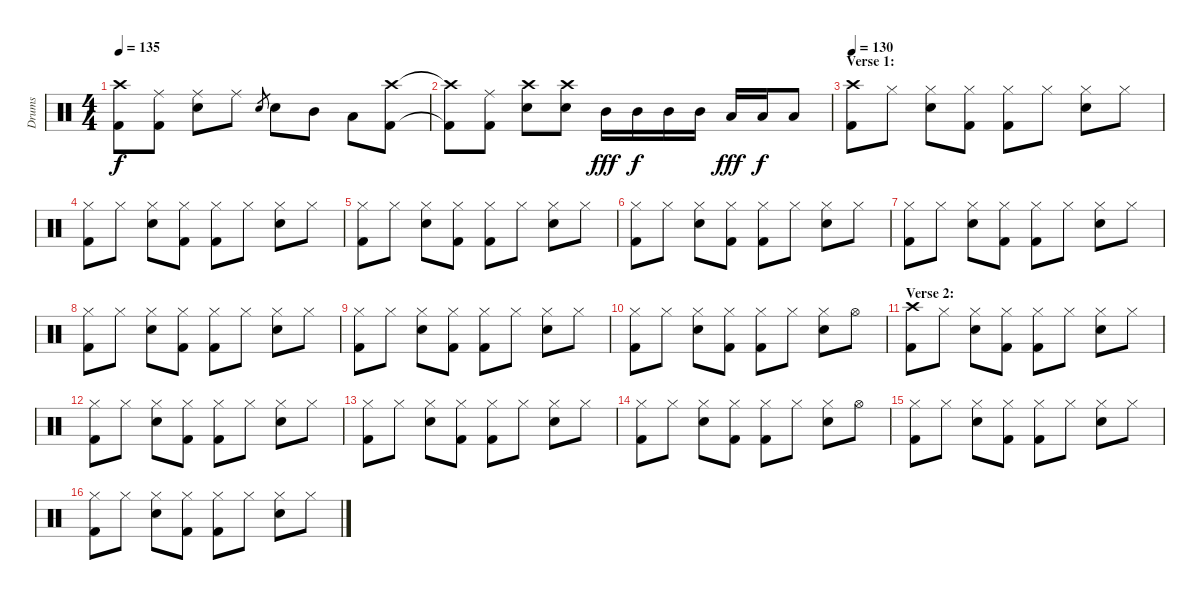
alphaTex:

\track ("Drums" "Drums") {instrument percussion}
\staff {score}
\articulation defaults
\ts (4 4)
\tempo 135
\clef neutral
\ks c
("Crash high (hit)"{t} "Kick (hit) 2"{t}).8{dy f} ("Ride (middle)" "Kick (hit) 2").8 ("Ride (middle)" "Electric Snare (hit)").8 "Ride (middle)".8 "Electric Snare (hit)".8{gr} "Electric Snare (hit)".8 "Mid Tom (hit)".8 "Low Tom (hit)".8 ("Crash high (hit)" "Kick (hit) 2").8 |
("Crash high (hit)"{t} "Kick (hit) 2"{t}).8 ("Ride (middle)" "Kick (hit) 2").8 ("Crash high (hit)" "Electric Snare (hit)").8 ("Crash high (hit)" "Electric Snare (hit)").8 "Mid Tom (hit)".16{dy fff} "Mid Tom (hit)".16{dy f} "Mid Tom (hit)".16 "Mid Tom (hit)".16 "Low Tom (hit)".16{dy fff} "Low Tom (hit)".16{dy f} "Low Tom (hit)".8 |
\section ("" "Verse 1:")
\tempo 130
("Crash high (hit)" "Kick (hit) 2").8 "Hi-Hat (closed)".8 ("Hi-Hat (closed)" "Electric Snare (hit)").8 ("Hi-Hat (closed)" "Kick (hit) 2").8 ("Hi-Hat (closed)" "Kick (hit) 2").8 "Hi-Hat (closed)".8 ("Hi-Hat (closed)" "Electric Snare (hit)").8 "Hi-Hat (closed)".8 |
("Hi-Hat (closed)" "Kick (hit) 2").8 "Hi-Hat (closed)".8 ("Hi-Hat (closed)" "Electric Snare (hit)").8 ("Hi-Hat (closed)" "Kick (hit) 2").8 ("Hi-Hat (closed)" "Kick (hit) 2").8 "Hi-Hat (closed)".8 ("Hi-Hat (closed)" "Electric Snare (hit)").8 "Hi-Hat (closed)".8 |
("Hi-Hat (closed)" "Kick (hit) 2").8 "Hi-Hat (closed)".8 ("Hi-Hat (closed)" "Electric Snare (hit)").8 ("Hi-Hat (closed)" "Kick (hit) 2").8 ("Hi-Hat (closed)" "Kick (hit) 2").8 "Hi-Hat (closed)".8 ("Hi-Hat (closed)" "Electric Snare (hit)").8 "Hi-Hat (closed)".8 |
("Hi-Hat (closed)" "Kick (hit) 2").8 "Hi-Hat (closed)".8 ("Hi-Hat (closed)" "Electric Snare (hit)").8 ("Hi-Hat (closed)" "Kick (hit) 2").8 ("Hi-Hat (closed)" "Kick (hit) 2").8 "Hi-Hat (closed)".8 ("Hi-Hat (closed)" "Electric Snare (hit)").8 "Hi-Hat (closed)".8 |
("Hi-Hat (closed)" "Kick (hit) 2").8 "Hi-Hat (closed)".8 ("Hi-Hat (closed)" "Electric Snare (hit)").8 ("Hi-Hat (closed)" "Kick (hit) 2").8 ("Hi-Hat (closed)" "Kick (hit) 2").8 "Hi-Hat (closed)".8 ("Hi-Hat (closed)" "Electric Snare (hit)").8 "Hi-Hat (closed)".8 |
("Hi-Hat (closed)" "Kick (hit) 2").8 "Hi-Hat (closed)".8 ("Hi-Hat (closed)" "Electric Snare (hit)").8 ("Hi-Hat (closed)" "Kick (hit) 2").8 ("Hi-Hat (closed)" "Kick (hit) 2").8 "Hi-Hat (closed)".8 ("Hi-Hat (closed)" "Electric Snare (hit)").8 "Hi-Hat (closed)".8 |
("Hi-Hat (closed)" "Kick (hit) 2").8 "Hi-Hat (closed)".8 ("Hi-Hat (closed)" "Electric Snare (hit)").8 ("Hi-Hat (closed)" "Kick (hit) 2").8 ("Hi-Hat (closed)" "Kick (hit) 2").8 "Hi-Hat (closed)".8 ("Hi-Hat (closed)" "Electric Snare (hit)").8 "Hi-Hat (closed)".8 |
("Hi-Hat (closed)" "Kick (hit) 2").8 "Hi-Hat (closed)".8 ("Hi-Hat (closed)" "Electric Snare (hit)").8 ("Hi-Hat (closed)" "Kick (hit) 2").8 ("Hi-Hat (closed)" "Kick (hit) 2").8 "Hi-Hat (closed)".8 ("Hi-Hat (closed)" "Electric Snare (hit)").8 "Hi-Hat (open)".8 |
\section ("" "Verse 2:")
("Crash high (hit)" "Kick (hit) 2").8 "Hi-Hat (closed)".8 ("Hi-Hat (closed)" "Electric Snare (hit)").8 ("Hi-Hat (closed)" "Kick (hit) 2").8 ("Hi-Hat (closed)" "Kick (hit) 2").8 "Hi-Hat (closed)".8 ("Hi-Hat (closed)" "Electric Snare (hit)").8 "Hi-Hat (closed)".8 |
("Hi-Hat (closed)" "Kick (hit) 2").8 "Hi-Hat (closed)".8 ("Hi-Hat (closed)" "Electric Snare (hit)").8 ("Hi-Hat (closed)" "Kick (hit) 2").8 ("Hi-Hat (closed)" "Kick (hit) 2").8 "Hi-Hat (closed)".8 ("Hi-Hat (closed)" "Electric Snare (hit)").8 "Hi-Hat (closed)".8 |
("Hi-Hat (closed)" "Kick (hit) 2").8 "Hi-Hat (closed)".8 ("Hi-Hat (closed)" "Electric Snare (hit)").8 ("Hi-Hat (closed)" "Kick (hit) 2").8 ("Hi-Hat (closed)" "Kick (hit) 2").8 "Hi-Hat (closed)".8 ("Hi-Hat (closed)" "Electric Snare (hit)").8 "Hi-Hat (closed)".8 |
("Hi-Hat (closed)" "Kick (hit) 2").8 "Hi-Hat (closed)".8 ("Hi-Hat (closed)" "Electric Snare (hit)").8 ("Hi-Hat (closed)" "Kick (hit) 2").8 ("Hi-Hat (closed)" "Kick (hit) 2").8 "Hi-Hat (closed)".8 ("Hi-Hat (closed)" "Electric Snare (hit)").8 "Hi-Hat (open)".8 |
("Hi-Hat (closed)" "Kick (hit) 2").8 "Hi-Hat (closed)".8 ("Hi-Hat (closed)" "Electric Snare (hit)").8 ("Hi-Hat (closed)" "Kick (hit) 2").8 ("Hi-Hat (closed)" "Kick (hit) 2").8 "Hi-Hat (closed)".8 ("Hi-Hat (closed)" "Electric Snare (hit)").8 "Hi-Hat (closed)".8 |
("Hi-Hat (closed)" "Kick (hit) 2").8 "Hi-Hat (closed)".8 ("Hi-Hat (closed)" "Electric Snare (hit)").8 ("Hi-Hat (closed)" "Kick (hit) 2").8 ("Hi-Hat (closed)" "Kick (hit) 2").8 "Hi-Hat (closed)".8 ("Hi-Hat (closed)" "Electric Snare (hit)").8 "Hi-Hat (closed)".8
